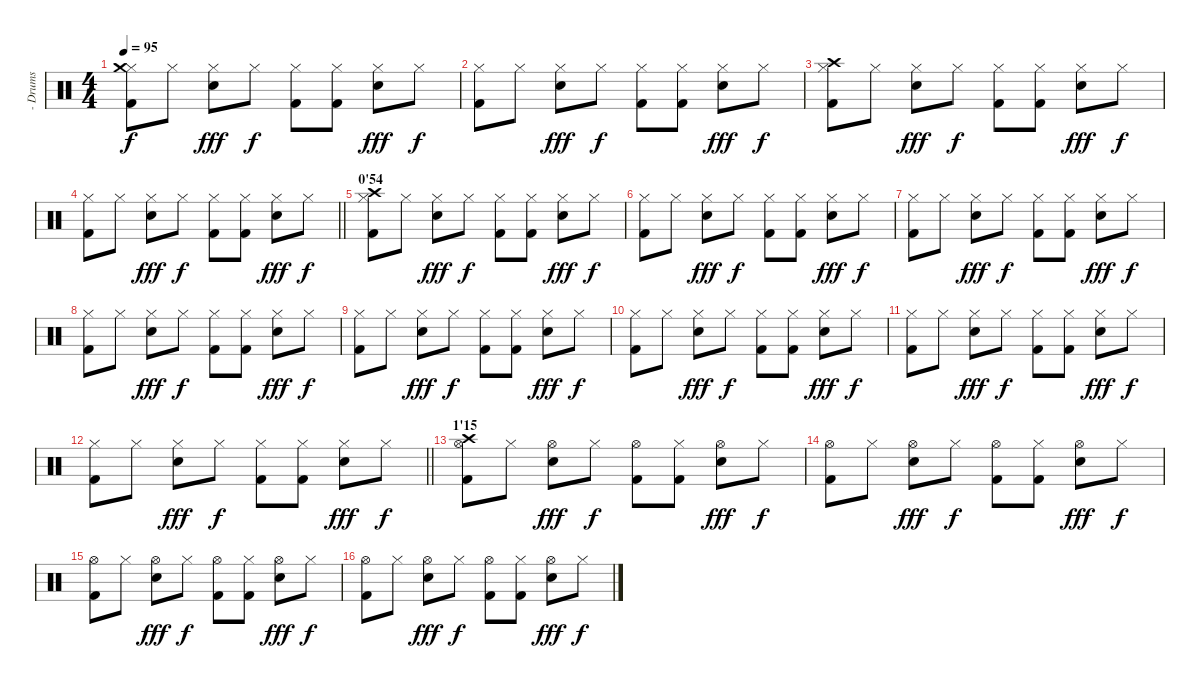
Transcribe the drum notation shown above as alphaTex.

\track ("- Drums" "- Drums") {instrument percussion}
\staff {score}
\articulation defaults
\ts (4 4)
\tempo 95
\clef neutral
\ks c
("Hi-Hat (closed)" "Crash medium (hit)" "Kick (hit) 2").8{dy f} "Hi-Hat (closed)".8 ("Hi-Hat (closed)" "Electric Snare (hit)").8{dy fff} "Hi-Hat (closed)".8{dy f} ("Hi-Hat (closed)" "Kick (hit) 2").8 ("Hi-Hat (closed)" "Kick (hit) 2").8 ("Hi-Hat (closed)" "Electric Snare (hit)").8{dy fff} "Hi-Hat (closed)".8{dy f} |
("Hi-Hat (closed)" "Kick (hit) 2").8 "Hi-Hat (closed)".8 ("Hi-Hat (closed)" "Electric Snare (hit)").8{dy fff} "Hi-Hat (closed)".8{dy f} ("Hi-Hat (closed)" "Kick (hit) 2").8 ("Hi-Hat (closed)" "Kick (hit) 2").8 ("Hi-Hat (closed)" "Electric Snare (hit)").8{dy fff} "Hi-Hat (closed)".8{dy f} |
("Hi-Hat (closed)" "Crash high (hit)" "Kick (hit) 2").8 "Hi-Hat (closed)".8 ("Hi-Hat (closed)" "Electric Snare (hit)").8{dy fff} "Hi-Hat (closed)".8{dy f} ("Hi-Hat (closed)" "Kick (hit) 2").8 ("Hi-Hat (closed)" "Kick (hit) 2").8 ("Hi-Hat (closed)" "Electric Snare (hit)").8{dy fff} "Hi-Hat (closed)".8{dy f} |
\barLineRight lightlight
("Hi-Hat (closed)" "Kick (hit) 2").8 "Hi-Hat (closed)".8 ("Hi-Hat (closed)" "Electric Snare (hit)").8{dy fff} "Hi-Hat (closed)".8{dy f} ("Hi-Hat (closed)" "Kick (hit) 2").8 ("Hi-Hat (closed)" "Kick (hit) 2").8 ("Hi-Hat (closed)" "Electric Snare (hit)").8{dy fff} "Hi-Hat (closed)".8{dy f} |
\section ("" "0'54")
("Hi-Hat (closed)" "Crash high (hit)" "Kick (hit) 2").8 "Hi-Hat (closed)".8 ("Hi-Hat (closed)" "Electric Snare (hit)").8{dy fff} "Hi-Hat (closed)".8{dy f} ("Hi-Hat (closed)" "Kick (hit) 2").8 ("Hi-Hat (closed)" "Kick (hit) 2").8 ("Hi-Hat (closed)" "Electric Snare (hit)").8{dy fff} "Hi-Hat (closed)".8{dy f} |
("Hi-Hat (closed)" "Kick (hit) 2").8 "Hi-Hat (closed)".8 ("Hi-Hat (closed)" "Electric Snare (hit)").8{dy fff} "Hi-Hat (closed)".8{dy f} ("Hi-Hat (closed)" "Kick (hit) 2").8 ("Hi-Hat (closed)" "Kick (hit) 2").8 ("Hi-Hat (closed)" "Electric Snare (hit)").8{dy fff} "Hi-Hat (closed)".8{dy f} |
("Hi-Hat (closed)" "Kick (hit) 2").8 "Hi-Hat (closed)".8 ("Hi-Hat (closed)" "Electric Snare (hit)").8{dy fff} "Hi-Hat (closed)".8{dy f} ("Hi-Hat (closed)" "Kick (hit) 2").8 ("Hi-Hat (closed)" "Kick (hit) 2").8 ("Hi-Hat (closed)" "Electric Snare (hit)").8{dy fff} "Hi-Hat (closed)".8{dy f} |
("Hi-Hat (closed)" "Kick (hit) 2").8 "Hi-Hat (closed)".8 ("Hi-Hat (closed)" "Electric Snare (hit)").8{dy fff} "Hi-Hat (closed)".8{dy f} ("Hi-Hat (closed)" "Kick (hit) 2").8 ("Hi-Hat (closed)" "Kick (hit) 2").8 ("Hi-Hat (closed)" "Electric Snare (hit)").8{dy fff} "Hi-Hat (closed)".8{dy f} |
("Hi-Hat (closed)" "Kick (hit) 2").8 "Hi-Hat (closed)".8 ("Hi-Hat (closed)" "Electric Snare (hit)").8{dy fff} "Hi-Hat (closed)".8{dy f} ("Hi-Hat (closed)" "Kick (hit) 2").8 ("Hi-Hat (closed)" "Kick (hit) 2").8 ("Hi-Hat (closed)" "Electric Snare (hit)").8{dy fff} "Hi-Hat (closed)".8{dy f} |
("Hi-Hat (closed)" "Kick (hit) 2").8 "Hi-Hat (closed)".8 ("Hi-Hat (closed)" "Electric Snare (hit)").8{dy fff} "Hi-Hat (closed)".8{dy f} ("Hi-Hat (closed)" "Kick (hit) 2").8 ("Hi-Hat (closed)" "Kick (hit) 2").8 ("Hi-Hat (closed)" "Electric Snare (hit)").8{dy fff} "Hi-Hat (closed)".8{dy f} |
("Hi-Hat (closed)" "Kick (hit) 2").8 "Hi-Hat (closed)".8 ("Hi-Hat (closed)" "Electric Snare (hit)").8{dy fff} "Hi-Hat (closed)".8{dy f} ("Hi-Hat (closed)" "Kick (hit) 2").8 ("Hi-Hat (closed)" "Kick (hit) 2").8 ("Hi-Hat (closed)" "Electric Snare (hit)").8{dy fff} "Hi-Hat (closed)".8{dy f} |
\barLineRight lightlight
("Hi-Hat (closed)" "Kick (hit) 2").8 "Hi-Hat (closed)".8 ("Hi-Hat (closed)" "Electric Snare (hit)").8{dy fff} "Hi-Hat (closed)".8{dy f} ("Hi-Hat (closed)" "Kick (hit) 2").8 ("Hi-Hat (closed)" "Kick (hit) 2").8 ("Hi-Hat (closed)" "Electric Snare (hit)").8{dy fff} "Hi-Hat (closed)".8{dy f} |
\section ("" "1'15")
("Hi-Hat (open)" "Crash high (hit)" "Kick (hit) 2").8 "Hi-Hat (closed)".8 ("Hi-Hat (open)" "Electric Snare (hit)").8{dy fff} "Hi-Hat (closed)".8{dy f} ("Hi-Hat (open)" "Kick (hit) 2").8 ("Hi-Hat (closed)" "Kick (hit) 2").8 ("Hi-Hat (open)" "Electric Snare (hit)").8{dy fff} "Hi-Hat (closed)".8{dy f} |
("Hi-Hat (open)" "Kick (hit) 2").8 "Hi-Hat (closed)".8 ("Hi-Hat (open)" "Electric Snare (hit)").8{dy fff} "Hi-Hat (closed)".8{dy f} ("Hi-Hat (open)" "Kick (hit) 2").8 ("Hi-Hat (closed)" "Kick (hit) 2").8 ("Hi-Hat (open)" "Electric Snare (hit)").8{dy fff} "Hi-Hat (closed)".8{dy f} |
("Hi-Hat (open)" "Kick (hit) 2").8 "Hi-Hat (closed)".8 ("Hi-Hat (open)" "Electric Snare (hit)").8{dy fff} "Hi-Hat (closed)".8{dy f} ("Hi-Hat (open)" "Kick (hit) 2").8 ("Hi-Hat (closed)" "Kick (hit) 2").8 ("Hi-Hat (open)" "Electric Snare (hit)").8{dy fff} "Hi-Hat (closed)".8{dy f} |
("Hi-Hat (open)" "Kick (hit) 2").8 "Hi-Hat (closed)".8 ("Hi-Hat (open)" "Electric Snare (hit)").8{dy fff} "Hi-Hat (closed)".8{dy f} ("Hi-Hat (open)" "Kick (hit) 2").8 ("Hi-Hat (closed)" "Kick (hit) 2").8 ("Hi-Hat (open)" "Electric Snare (hit)").8{dy fff} "Hi-Hat (closed)".8{dy f}
